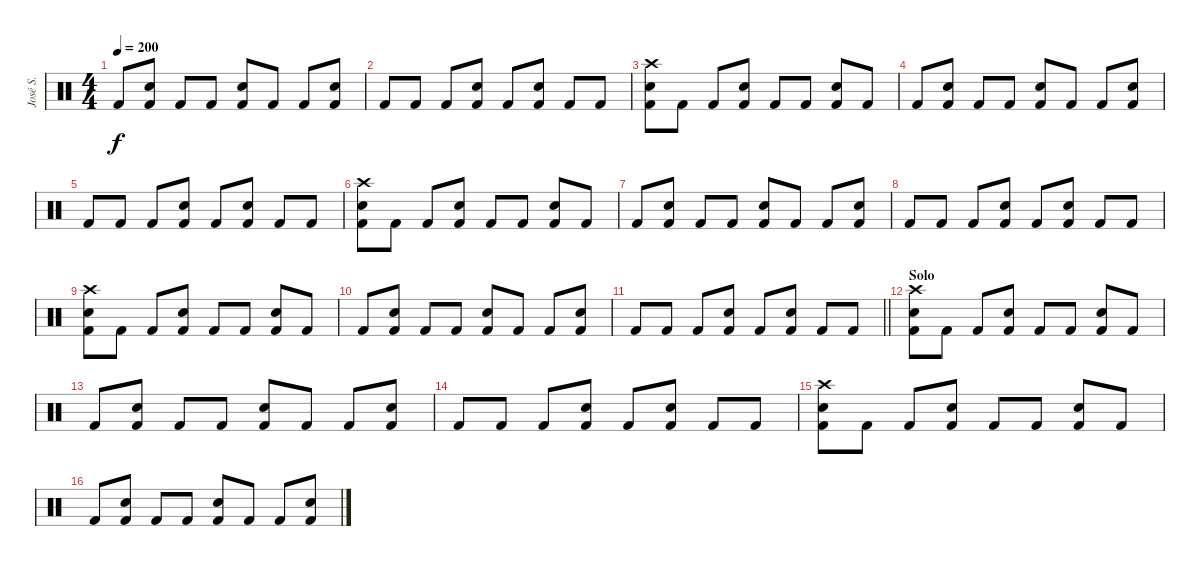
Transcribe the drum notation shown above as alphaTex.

\track ("José S." "José S.") {instrument percussion}
\staff {score}
\articulation defaults
\ts (4 4)
\tempo 200
\clef neutral
\ks c "Kick (hit) 2".8{dy f}
("Electric Snare (hit)" "Kick (hit) 2").8 "Kick (hit) 2".8 "Kick (hit) 2".8 ("Electric Snare (hit)" "Kick (hit) 2").8 "Kick (hit) 2".8 "Kick (hit) 2".8 ("Electric Snare (hit)" "Kick (hit) 2").8 |
"Kick (hit) 2".8 "Kick (hit) 2".8 "Kick (hit) 2".8 ("Electric Snare (hit)" "Kick (hit) 2").8 "Kick (hit) 2".8 ("Electric Snare (hit)" "Kick (hit) 2").8 "Kick (hit) 2".8 "Kick (hit) 2".8 |
("Crash high (hit)" "Electric Snare (hit)" "Kick (hit) 2").8 "Kick (hit) 2".8 "Kick (hit) 2".8 ("Electric Snare (hit)" "Kick (hit) 2").8 "Kick (hit) 2".8 "Kick (hit) 2".8 ("Electric Snare (hit)" "Kick (hit) 2").8 "Kick (hit) 2".8 |
"Kick (hit) 2".8 ("Electric Snare (hit)" "Kick (hit) 2").8 "Kick (hit) 2".8 "Kick (hit) 2".8 ("Electric Snare (hit)" "Kick (hit) 2").8 "Kick (hit) 2".8 "Kick (hit) 2".8 ("Electric Snare (hit)" "Kick (hit) 2").8 |
"Kick (hit) 2".8 "Kick (hit) 2".8 "Kick (hit) 2".8 ("Electric Snare (hit)" "Kick (hit) 2").8 "Kick (hit) 2".8 ("Electric Snare (hit)" "Kick (hit) 2").8 "Kick (hit) 2".8 "Kick (hit) 2".8 |
("Crash high (hit)" "Electric Snare (hit)" "Kick (hit) 2").8 "Kick (hit) 2".8 "Kick (hit) 2".8 ("Electric Snare (hit)" "Kick (hit) 2").8 "Kick (hit) 2".8 "Kick (hit) 2".8 ("Electric Snare (hit)" "Kick (hit) 2").8 "Kick (hit) 2".8 |
"Kick (hit) 2".8 ("Electric Snare (hit)" "Kick (hit) 2").8 "Kick (hit) 2".8 "Kick (hit) 2".8 ("Electric Snare (hit)" "Kick (hit) 2").8 "Kick (hit) 2".8 "Kick (hit) 2".8 ("Electric Snare (hit)" "Kick (hit) 2").8 |
"Kick (hit) 2".8 "Kick (hit) 2".8 "Kick (hit) 2".8 ("Electric Snare (hit)" "Kick (hit) 2").8 "Kick (hit) 2".8 ("Electric Snare (hit)" "Kick (hit) 2").8 "Kick (hit) 2".8 "Kick (hit) 2".8 |
("Crash high (hit)" "Electric Snare (hit)" "Kick (hit) 2").8 "Kick (hit) 2".8 "Kick (hit) 2".8 ("Electric Snare (hit)" "Kick (hit) 2").8 "Kick (hit) 2".8 "Kick (hit) 2".8 ("Electric Snare (hit)" "Kick (hit) 2").8 "Kick (hit) 2".8 |
"Kick (hit) 2".8 ("Electric Snare (hit)" "Kick (hit) 2").8 "Kick (hit) 2".8 "Kick (hit) 2".8 ("Electric Snare (hit)" "Kick (hit) 2").8 "Kick (hit) 2".8 "Kick (hit) 2".8 ("Electric Snare (hit)" "Kick (hit) 2").8 |
\barLineRight lightlight "Kick (hit) 2".8 "Kick (hit) 2".8 "Kick (hit) 2".8
("Electric Snare (hit)" "Kick (hit) 2").8 "Kick (hit) 2".8 ("Electric Snare (hit)" "Kick (hit) 2").8 "Kick (hit) 2".8 "Kick (hit) 2".8 |
\section ("" "Solo")
("Crash high (hit)" "Electric Snare (hit)" "Kick (hit) 2").8 "Kick (hit) 2".8 "Kick (hit) 2".8 ("Electric Snare (hit)" "Kick (hit) 2").8 "Kick (hit) 2".8 "Kick (hit) 2".8 ("Electric Snare (hit)" "Kick (hit) 2").8 "Kick (hit) 2".8 |
"Kick (hit) 2".8 ("Electric Snare (hit)" "Kick (hit) 2").8 "Kick (hit) 2".8 "Kick (hit) 2".8 ("Electric Snare (hit)" "Kick (hit) 2").8 "Kick (hit) 2".8 "Kick (hit) 2".8 ("Electric Snare (hit)" "Kick (hit) 2").8 |
"Kick (hit) 2".8 "Kick (hit) 2".8 "Kick (hit) 2".8 ("Electric Snare (hit)" "Kick (hit) 2").8 "Kick (hit) 2".8 ("Electric Snare (hit)" "Kick (hit) 2").8 "Kick (hit) 2".8 "Kick (hit) 2".8 |
("Crash high (hit)" "Electric Snare (hit)" "Kick (hit) 2").8 "Kick (hit) 2".8 "Kick (hit) 2".8 ("Electric Snare (hit)" "Kick (hit) 2").8 "Kick (hit) 2".8 "Kick (hit) 2".8 ("Electric Snare (hit)" "Kick (hit) 2").8 "Kick (hit) 2".8 |
"Kick (hit) 2".8 ("Electric Snare (hit)" "Kick (hit) 2").8 "Kick (hit) 2".8 "Kick (hit) 2".8 ("Electric Snare (hit)" "Kick (hit) 2").8 "Kick (hit) 2".8 "Kick (hit) 2".8 ("Electric Snare (hit)" "Kick (hit) 2").8
